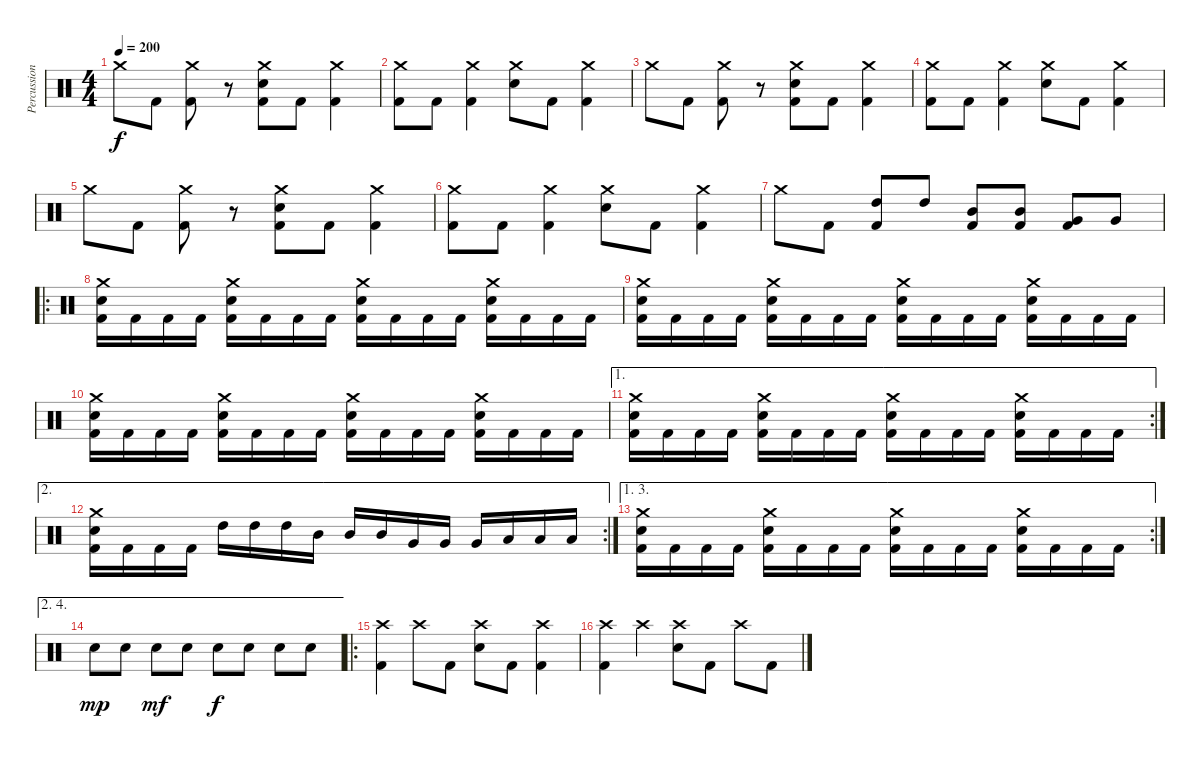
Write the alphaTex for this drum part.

\track ("Percussion" "Percussion") {instrument percussion}
\staff {score}
\articulation defaults
\ts (4 4)
\tempo 200
\clef neutral
\ks c "Crash medium (hit)".8{dy f} "Kick (hit) 2".8
("Crash medium (hit)" "Kick (hit) 2").8 r.8 ("Crash medium (hit)" "Electric Snare (hit)" "Kick (hit) 2").8 "Kick (hit) 2".8 ("Crash medium (hit)" "Kick (hit) 2").4 |
("Crash medium (hit)" "Kick (hit) 2").8 "Kick (hit) 2".8 ("Crash medium (hit)" "Kick (hit) 2").4 ("Crash medium (hit)" "Electric Snare (hit)").8 "Kick (hit) 2".8 ("Crash medium (hit)" "Kick (hit) 2").4 |
"Crash medium (hit)".8 "Kick (hit) 2".8 ("Crash medium (hit)" "Kick (hit) 2").8 r.8 ("Crash medium (hit)" "Electric Snare (hit)" "Kick (hit) 2").8 "Kick (hit) 2".8 ("Crash medium (hit)" "Kick (hit) 2").4 |
("Crash medium (hit)" "Kick (hit) 2").8 "Kick (hit) 2".8 ("Crash medium (hit)" "Kick (hit) 2").4 ("Crash medium (hit)" "Electric Snare (hit)").8 "Kick (hit) 2".8 ("Crash medium (hit)" "Kick (hit) 2").4 |
"Crash medium (hit)".8 "Kick (hit) 2".8 ("Crash medium (hit)" "Kick (hit) 2").8 r.8 ("Crash medium (hit)" "Electric Snare (hit)" "Kick (hit) 2").8 "Kick (hit) 2".8 ("Crash medium (hit)" "Kick (hit) 2").4 |
("Crash medium (hit)" "Kick (hit) 2").8 "Kick (hit) 2".8 ("Crash medium (hit)" "Kick (hit) 2").4 ("Crash medium (hit)" "Electric Snare (hit)").8 "Kick (hit) 2".8 ("Crash medium (hit)" "Kick (hit) 2").4 |
"Crash medium (hit)".8 "Kick (hit) 2".8 ("High Tom (hit)" "Kick (hit) 2").8 "High Tom (hit)".8 ("Mid Tom (hit)" "Kick (hit) 2").8 ("Mid Tom (hit)" "Kick (hit) 2").8 ("Very Low Tom (hit)" "Kick (hit) 2").8 "Very Low Tom (hit)".8 |
\ro
("Crash medium (hit)" "Electric Snare (hit)" "Kick (hit) 2").16 "Kick (hit) 2".16 "Kick (hit) 2".16 "Kick (hit) 2".16 ("Crash medium (hit)" "Electric Snare (hit)" "Kick (hit) 2").16 "Kick (hit) 2".16 "Kick (hit) 2".16 "Kick (hit) 2".16 ("Crash medium (hit)" "Electric Snare (hit)" "Kick (hit) 2").16 "Kick (hit) 2".16 "Kick (hit) 2".16 "Kick (hit) 2".16 ("Crash medium (hit)" "Electric Snare (hit)" "Kick (hit) 2").16 "Kick (hit) 2".16 "Kick (hit) 2".16 "Kick (hit) 2".16 |
("Crash medium (hit)" "Electric Snare (hit)" "Kick (hit) 2").16 "Kick (hit) 2".16 "Kick (hit) 2".16 "Kick (hit) 2".16 ("Crash medium (hit)" "Electric Snare (hit)" "Kick (hit) 2").16 "Kick (hit) 2".16 "Kick (hit) 2".16 "Kick (hit) 2".16 ("Crash medium (hit)" "Electric Snare (hit)" "Kick (hit) 2").16 "Kick (hit) 2".16 "Kick (hit) 2".16 "Kick (hit) 2".16 ("Crash medium (hit)" "Electric Snare (hit)" "Kick (hit) 2").16 "Kick (hit) 2".16 "Kick (hit) 2".16 "Kick (hit) 2".16 |
("Crash medium (hit)" "Electric Snare (hit)" "Kick (hit) 2").16 "Kick (hit) 2".16 "Kick (hit) 2".16 "Kick (hit) 2".16 ("Crash medium (hit)" "Electric Snare (hit)" "Kick (hit) 2").16 "Kick (hit) 2".16 "Kick (hit) 2".16 "Kick (hit) 2".16 ("Crash medium (hit)" "Electric Snare (hit)" "Kick (hit) 2").16 "Kick (hit) 2".16 "Kick (hit) 2".16 "Kick (hit) 2".16 ("Crash medium (hit)" "Electric Snare (hit)" "Kick (hit) 2").16 "Kick (hit) 2".16 "Kick (hit) 2".16 "Kick (hit) 2".16 |
\ae 1
\rc 2
("Crash medium (hit)" "Electric Snare (hit)" "Kick (hit) 2").16 "Kick (hit) 2".16 "Kick (hit) 2".16 "Kick (hit) 2".16 ("Crash medium (hit)" "Electric Snare (hit)" "Kick (hit) 2").16 "Kick (hit) 2".16 "Kick (hit) 2".16 "Kick (hit) 2".16 ("Crash medium (hit)" "Electric Snare (hit)" "Kick (hit) 2").16 "Kick (hit) 2".16 "Kick (hit) 2".16 "Kick (hit) 2".16 ("Crash medium (hit)" "Electric Snare (hit)" "Kick (hit) 2").16 "Kick (hit) 2".16 "Kick (hit) 2".16 "Kick (hit) 2".16 |
\ae 2
\rc 2
("Crash medium (hit)" "Electric Snare (hit)" "Kick (hit) 2").16 "Kick (hit) 2".16 "Kick (hit) 2".16 "Kick (hit) 2".16 "High Tom (hit)".16 "High Tom (hit)".16 "High Tom (hit)".16 "Mid Tom (hit)".16 "Mid Tom (hit)".16 "Mid Tom (hit)".16 "Very Low Tom (hit)".16 "Very Low Tom (hit)".16 "Very Low Tom (hit)".16 "Low Floor Tom (hit)".16 "Low Floor Tom (hit)".16 "Low Floor Tom (hit)".16 |
\ae (1 3)
\rc 2
("Crash medium (hit)" "Electric Snare (hit)" "Kick (hit) 2").16 "Kick (hit) 2".16 "Kick (hit) 2".16 "Kick (hit) 2".16 ("Crash medium (hit)" "Electric Snare (hit)" "Kick (hit) 2").16 "Kick (hit) 2".16 "Kick (hit) 2".16 "Kick (hit) 2".16 ("Crash medium (hit)" "Electric Snare (hit)" "Kick (hit) 2").16 "Kick (hit) 2".16 "Kick (hit) 2".16 "Kick (hit) 2".16 ("Crash medium (hit)" "Electric Snare (hit)" "Kick (hit) 2").16 "Kick (hit) 2".16 "Kick (hit) 2".16 "Kick (hit) 2".16 |
\ae (2 4)
"Electric Snare (hit)".8{dy mp} "Electric Snare (hit)".8 "Electric Snare (hit)".8{dy mf} "Electric Snare (hit)".8 "Electric Snare (hit)".8{dy f} "Electric Snare (hit)".8 "Electric Snare (hit)".8 "Electric Snare (hit)".8 |
\ro
("Crash high (hit)" "Kick (hit) 2").4 "Crash high (hit)".8 "Kick (hit) 2".8 ("Crash high (hit)" "Electric Snare (hit)").8 "Kick (hit) 2".8 ("Crash high (hit)" "Kick (hit) 2").4 |
("Crash high (hit)" "Kick (hit) 2").4 "Crash high (hit)".4 ("Crash high (hit)" "Electric Snare (hit)").8 "Kick (hit) 2".8 "Crash high (hit)".8 "Kick (hit) 2".8
